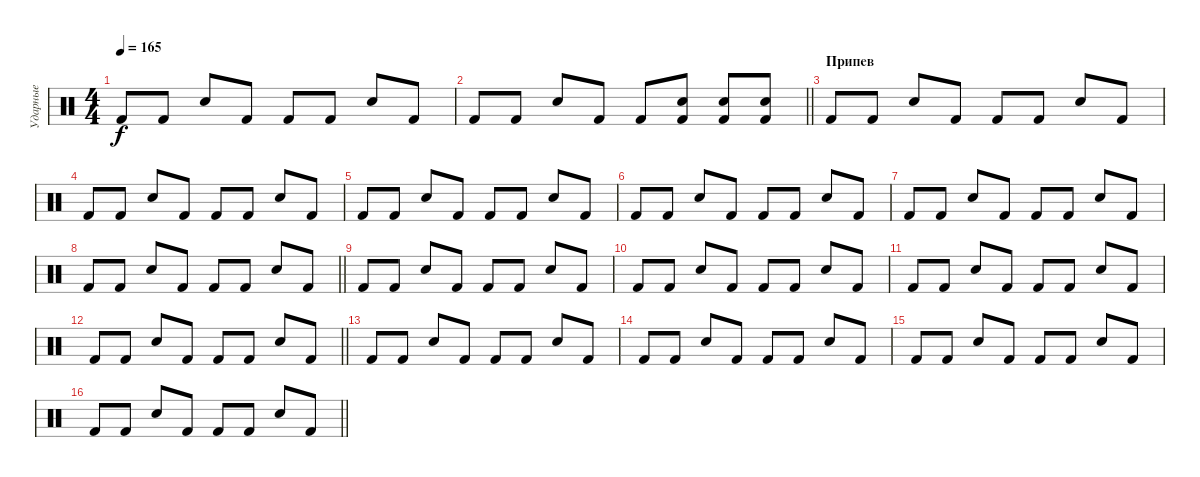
\track ("Ударные" "Ударные") {instrument percussion}
\staff {score}
\articulation defaults
\ts (4 4)
\tempo 165
\clef neutral
\ks c "Kick (hit) 2".8{dy f} "Kick (hit) 2".8 "Snare (hit) 2".8 "Kick (hit) 2".8 "Kick (hit) 2".8 "Kick (hit) 2".8 "Snare (hit) 2".8 "Kick (hit) 2".8
|
\barLineRight lightlight "Kick (hit) 2".8 "Kick (hit) 2".8 "Snare (hit) 2".8 "Kick (hit) 2".8 "Kick (hit) 2".8
("Kick (hit) 2" "Snare (hit) 2").8 ("Kick (hit) 2" "Snare (hit) 2").8 ("Kick (hit) 2" "Snare (hit) 2").8 |
\section ("" "Припев")
"Kick (hit) 2".8 "Kick (hit) 2".8 "Snare (hit) 2".8 "Kick (hit) 2".8 "Kick (hit) 2".8 "Kick (hit) 2".8 "Snare (hit) 2".8 "Kick (hit) 2".8 |
"Kick (hit) 2".8 "Kick (hit) 2".8 "Snare (hit) 2".8 "Kick (hit) 2".8 "Kick (hit) 2".8 "Kick (hit) 2".8 "Snare (hit) 2".8 "Kick (hit) 2".8 |
"Kick (hit) 2".8 "Kick (hit) 2".8 "Snare (hit) 2".8 "Kick (hit) 2".8 "Kick (hit) 2".8 "Kick (hit) 2".8 "Snare (hit) 2".8 "Kick (hit) 2".8 |
"Kick (hit) 2".8 "Kick (hit) 2".8 "Snare (hit) 2".8 "Kick (hit) 2".8 "Kick (hit) 2".8 "Kick (hit) 2".8 "Snare (hit) 2".8 "Kick (hit) 2".8 |
"Kick (hit) 2".8 "Kick (hit) 2".8 "Snare (hit) 2".8 "Kick (hit) 2".8 "Kick (hit) 2".8 "Kick (hit) 2".8 "Snare (hit) 2".8 "Kick (hit) 2".8 |
\barLineRight lightlight "Kick (hit) 2".8 "Kick (hit) 2".8 "Snare (hit) 2".8 "Kick (hit) 2".8 "Kick (hit) 2".8 "Kick (hit) 2".8 "Snare (hit) 2".8 "Kick (hit) 2".8
|
"Kick (hit) 2".8 "Kick (hit) 2".8 "Snare (hit) 2".8 "Kick (hit) 2".8 "Kick (hit) 2".8 "Kick (hit) 2".8 "Snare (hit) 2".8 "Kick (hit) 2".8 |
"Kick (hit) 2".8 "Kick (hit) 2".8 "Snare (hit) 2".8 "Kick (hit) 2".8 "Kick (hit) 2".8 "Kick (hit) 2".8 "Snare (hit) 2".8 "Kick (hit) 2".8 |
"Kick (hit) 2".8 "Kick (hit) 2".8 "Snare (hit) 2".8 "Kick (hit) 2".8 "Kick (hit) 2".8 "Kick (hit) 2".8 "Snare (hit) 2".8 "Kick (hit) 2".8 |
\barLineRight lightlight "Kick (hit) 2".8 "Kick (hit) 2".8 "Snare (hit) 2".8 "Kick (hit) 2".8 "Kick (hit) 2".8 "Kick (hit) 2".8 "Snare (hit) 2".8 "Kick (hit) 2".8
|
"Kick (hit) 2".8 "Kick (hit) 2".8 "Snare (hit) 2".8 "Kick (hit) 2".8 "Kick (hit) 2".8 "Kick (hit) 2".8 "Snare (hit) 2".8 "Kick (hit) 2".8 |
"Kick (hit) 2".8 "Kick (hit) 2".8 "Snare (hit) 2".8 "Kick (hit) 2".8 "Kick (hit) 2".8 "Kick (hit) 2".8 "Snare (hit) 2".8 "Kick (hit) 2".8 |
"Kick (hit) 2".8 "Kick (hit) 2".8 "Snare (hit) 2".8 "Kick (hit) 2".8 "Kick (hit) 2".8 "Kick (hit) 2".8 "Snare (hit) 2".8 "Kick (hit) 2".8 |
\barLineRight lightlight "Kick (hit) 2".8 "Kick (hit) 2".8 "Snare (hit) 2".8 "Kick (hit) 2".8 "Kick (hit) 2".8 "Kick (hit) 2".8 "Snare (hit) 2".8 "Kick (hit) 2".8
